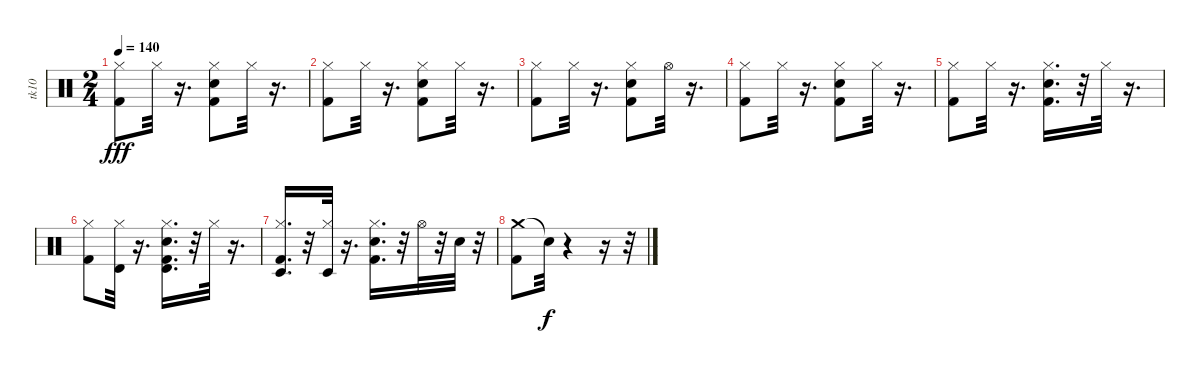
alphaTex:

\track ("tk10" "tk10") {instrument percussion}
\staff {score}
\articulation defaults
\ts (2 4)
\tempo 140
\clef neutral
\ks c
("Kick (hit) 2" "Hi-Hat (closed)").8{dy fff} "Hi-Hat (closed)".32 r.16{d} ("Hi-Hat (closed)" "Snare (hit) 2" "Kick (hit) 2").8 "Hi-Hat (closed)".32 r.16{d} |
("Kick (hit) 2" "Hi-Hat (closed)").8 "Hi-Hat (closed)".32 r.16{d} ("Snare (hit) 2" "Kick (hit) 2" "Hi-Hat (closed)").8 "Hi-Hat (closed)".32 r.16{d} |
("Kick (hit) 2" "Hi-Hat (closed)").8 "Hi-Hat (closed)".32 r.16{d} ("Kick (hit) 2" "Hi-Hat (closed)" "Snare (hit) 2").8 "Hi-Hat (open)".32 r.16{d} |
("Kick (hit) 2" "Hi-Hat (closed)").8 "Hi-Hat (closed)".32 r.16{d} ("Snare (hit) 2" "Kick (hit) 2" "Hi-Hat (closed)").8 "Hi-Hat (closed)".32 r.16{d} |
("Kick (hit) 2" "Hi-Hat (closed)").8 "Hi-Hat (closed)".32 r.16{d} ("Snare (hit) 2" "Kick (hit) 2" "Hi-Hat (closed)").16{d} r.32 "Hi-Hat (closed)".32 r.16{d} |
("Kick (hit) 2" "Hi-Hat (closed)").8 ("Timbale high (hit)" "Hi-Hat (closed)").32 r.16{d} ("Kick (hit) 2" "Timbale high (hit)" "Snare (hit) 2" "Hi-Hat (closed)").16{d} r.32 "Hi-Hat (closed)".32 r.16{d} |
("Kick (hit) 2" "Timbale low (hit)" "Hi-Hat (closed)").16{d} r.32 ("Timbale low (hit)" "Hi-Hat (closed)").32 r.16{d} ("Snare (hit) 2" "Kick (hit) 2" "Hi-Hat (closed)").16{d} r.32 "Hi-Hat (open)".32 r.32 "Snare (hit) 2".32 r.32 |
("Crash medium (hit)" "Kick (hit) 2").8 "Snare (hit)"{t}.32{dy f} r.4 r.16 r.32
